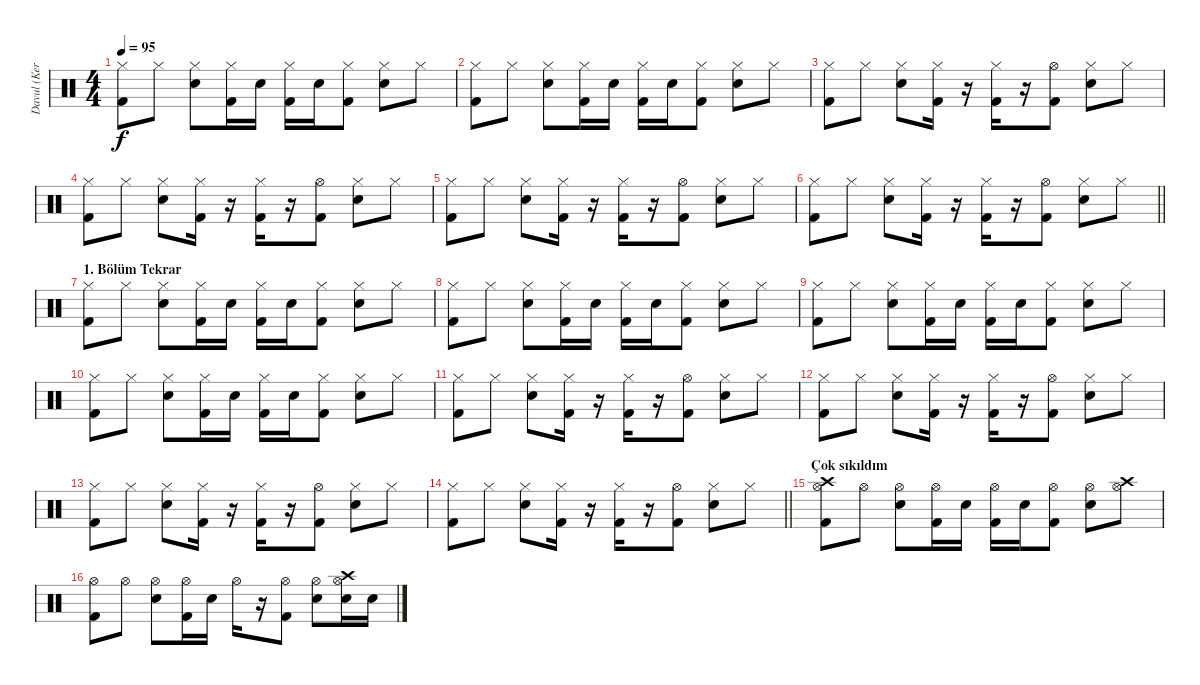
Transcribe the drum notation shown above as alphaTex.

\track ("Davul (Kerem Kabadayı)" "Davul (Ker") {instrument percussion}
\staff {score}
\articulation defaults
\ts (4 4)
\tempo 95
\clef neutral
\ks c
("Kick (hit) 2" "Hi-Hat (closed)").8{dy f} "Hi-Hat (closed)".8 ("Snare (hit) 2" "Hi-Hat (closed)").8 ("Kick (hit) 2" "Hi-Hat (closed)").16 "Snare (hit) 2".16 ("Kick (hit) 2" "Hi-Hat (closed)").16 "Snare (hit) 2".16 ("Kick (hit) 2" "Hi-Hat (closed)").8 ("Snare (hit) 2" "Hi-Hat (closed)").8 "Hi-Hat (closed)".8 |
("Kick (hit) 2" "Hi-Hat (closed)").8 "Hi-Hat (closed)".8 ("Snare (hit) 2" "Hi-Hat (closed)").8 ("Kick (hit) 2" "Hi-Hat (closed)").16 "Snare (hit) 2".16 ("Kick (hit) 2" "Hi-Hat (closed)").16 "Snare (hit) 2".16 ("Kick (hit) 2" "Hi-Hat (closed)").8 ("Snare (hit) 2" "Hi-Hat (closed)").8 "Hi-Hat (closed)".8 |
("Kick (hit) 2" "Hi-Hat (closed)").8 "Hi-Hat (closed)".8 ("Snare (hit) 2" "Hi-Hat (closed)").8 ("Kick (hit) 2" "Hi-Hat (closed)").16 r.16 ("Kick (hit) 2" "Hi-Hat (closed)").16 r.16 ("Kick (hit) 2" "Hi-Hat (open)").8 ("Snare (hit) 2" "Hi-Hat (closed)").8 "Hi-Hat (closed)".8 |
("Kick (hit) 2" "Hi-Hat (closed)").8 "Hi-Hat (closed)".8 ("Snare (hit) 2" "Hi-Hat (closed)").8 ("Kick (hit) 2" "Hi-Hat (closed)").16 r.16 ("Kick (hit) 2" "Hi-Hat (closed)").16 r.16 ("Kick (hit) 2" "Hi-Hat (open)").8 ("Snare (hit) 2" "Hi-Hat (closed)").8 "Hi-Hat (closed)".8 |
("Kick (hit) 2" "Hi-Hat (closed)").8 "Hi-Hat (closed)".8 ("Snare (hit) 2" "Hi-Hat (closed)").8 ("Kick (hit) 2" "Hi-Hat (closed)").16 r.16 ("Kick (hit) 2" "Hi-Hat (closed)").16 r.16 ("Kick (hit) 2" "Hi-Hat (open)").8 ("Snare (hit) 2" "Hi-Hat (closed)").8 "Hi-Hat (closed)".8 |
\barLineRight lightlight
("Kick (hit) 2" "Hi-Hat (closed)").8 "Hi-Hat (closed)".8 ("Snare (hit) 2" "Hi-Hat (closed)").8 ("Kick (hit) 2" "Hi-Hat (closed)").16 r.16 ("Kick (hit) 2" "Hi-Hat (closed)").16 r.16 ("Kick (hit) 2" "Hi-Hat (open)").8 ("Snare (hit) 2" "Hi-Hat (closed)").8 "Hi-Hat (closed)".8 |
\section ("" "1. Bölüm Tekrar")
("Kick (hit) 2" "Hi-Hat (closed)").8 "Hi-Hat (closed)".8 ("Snare (hit) 2" "Hi-Hat (closed)").8 ("Kick (hit) 2" "Hi-Hat (closed)").16 "Snare (hit) 2".16 ("Kick (hit) 2" "Hi-Hat (closed)").16 "Snare (hit) 2".16 ("Kick (hit) 2" "Hi-Hat (closed)").8 ("Snare (hit) 2" "Hi-Hat (closed)").8 "Hi-Hat (closed)".8 |
("Kick (hit) 2" "Hi-Hat (closed)").8 "Hi-Hat (closed)".8 ("Snare (hit) 2" "Hi-Hat (closed)").8 ("Kick (hit) 2" "Hi-Hat (closed)").16 "Snare (hit) 2".16 ("Kick (hit) 2" "Hi-Hat (closed)").16 "Snare (hit) 2".16 ("Kick (hit) 2" "Hi-Hat (closed)").8 ("Snare (hit) 2" "Hi-Hat (closed)").8 "Hi-Hat (closed)".8 |
("Kick (hit) 2" "Hi-Hat (closed)").8 "Hi-Hat (closed)".8 ("Snare (hit) 2" "Hi-Hat (closed)").8 ("Kick (hit) 2" "Hi-Hat (closed)").16 "Snare (hit) 2".16 ("Kick (hit) 2" "Hi-Hat (closed)").16 "Snare (hit) 2".16 ("Kick (hit) 2" "Hi-Hat (closed)").8 ("Snare (hit) 2" "Hi-Hat (closed)").8 "Hi-Hat (closed)".8 |
("Kick (hit) 2" "Hi-Hat (closed)").8 "Hi-Hat (closed)".8 ("Snare (hit) 2" "Hi-Hat (closed)").8 ("Kick (hit) 2" "Hi-Hat (closed)").16 "Snare (hit) 2".16 ("Kick (hit) 2" "Hi-Hat (closed)").16 "Snare (hit) 2".16 ("Kick (hit) 2" "Hi-Hat (closed)").8 ("Snare (hit) 2" "Hi-Hat (closed)").8 "Hi-Hat (closed)".8 |
("Kick (hit) 2" "Hi-Hat (closed)").8 "Hi-Hat (closed)".8 ("Snare (hit) 2" "Hi-Hat (closed)").8 ("Kick (hit) 2" "Hi-Hat (closed)").16 r.16 ("Kick (hit) 2" "Hi-Hat (closed)").16 r.16 ("Kick (hit) 2" "Hi-Hat (open)").8 ("Snare (hit) 2" "Hi-Hat (closed)").8 "Hi-Hat (closed)".8 |
("Kick (hit) 2" "Hi-Hat (closed)").8 "Hi-Hat (closed)".8 ("Snare (hit) 2" "Hi-Hat (closed)").8 ("Kick (hit) 2" "Hi-Hat (closed)").16 r.16 ("Kick (hit) 2" "Hi-Hat (closed)").16 r.16 ("Kick (hit) 2" "Hi-Hat (open)").8 ("Snare (hit) 2" "Hi-Hat (closed)").8 "Hi-Hat (closed)".8 |
("Kick (hit) 2" "Hi-Hat (closed)").8 "Hi-Hat (closed)".8 ("Snare (hit) 2" "Hi-Hat (closed)").8 ("Kick (hit) 2" "Hi-Hat (closed)").16 r.16 ("Kick (hit) 2" "Hi-Hat (closed)").16 r.16 ("Kick (hit) 2" "Hi-Hat (open)").8 ("Snare (hit) 2" "Hi-Hat (closed)").8 "Hi-Hat (closed)".8 |
\barLineRight lightlight
("Kick (hit) 2" "Hi-Hat (closed)").8 "Hi-Hat (closed)".8 ("Snare (hit) 2" "Hi-Hat (closed)").8 ("Kick (hit) 2" "Hi-Hat (closed)").16 r.16 ("Kick (hit) 2" "Hi-Hat (closed)").16 r.16 ("Kick (hit) 2" "Hi-Hat (open)").8 ("Snare (hit) 2" "Hi-Hat (closed)").8 "Hi-Hat (closed)".8 |
\section ("" "Çok sıkıldım")
("Crash high (hit)" "Kick (hit) 2" "Hi-Hat (open)").8 "Hi-Hat (open)".8 ("Snare (hit) 2" "Hi-Hat (open)").8 ("Kick (hit) 2" "Hi-Hat (open)").16 "Snare (hit) 2".16 ("Kick (hit) 2" "Hi-Hat (open)").16 "Snare (hit) 2".16 ("Kick (hit) 2" "Hi-Hat (open)").8 ("Snare (hit) 2" "Hi-Hat (open)").8 ("Crash high (hit)" "Hi-Hat (open)").8 |
("Kick (hit) 2" "Hi-Hat (open)").8 "Hi-Hat (open)".8 ("Snare (hit) 2" "Hi-Hat (open)").8 ("Kick (hit) 2" "Hi-Hat (open)").16 "Snare (hit) 2".16 "Hi-Hat (open)".16 r.16 ("Kick (hit) 2" "Hi-Hat (open)").8 ("Snare (hit) 2" "Hi-Hat (open)").8 ("Crash high (hit)" "Snare (hit) 2" "Hi-Hat (open)").16 "Snare (hit) 2".16
